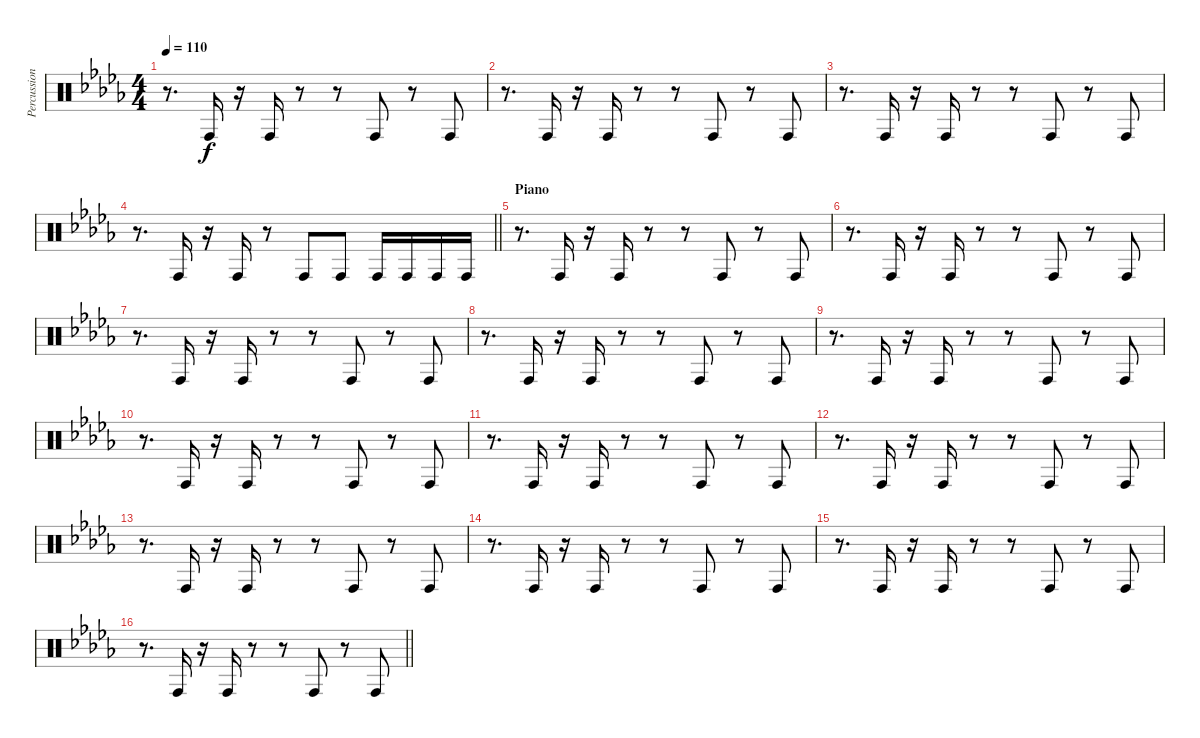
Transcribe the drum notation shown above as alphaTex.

\track ("Percussions" "Percussion") {instrument percussion}
\staff {score}
\articulation defaults
\ts (4 4)
\tempo 110
\clef neutral
\ks bbminor
r.8{d dy f} "Conga high (hit)".16 r.16 "Conga high (hit)".16 r.8 r.8 "Conga high (hit)".8 r.8 "Conga high (hit)".8 |
r.8{d} "Conga high (hit)".16 r.16 "Conga high (hit)".16 r.8 r.8 "Conga high (hit)".8 r.8 "Conga high (hit)".8 |
r.8{d} "Conga high (hit)".16 r.16 "Conga high (hit)".16 r.8 r.8 "Conga high (hit)".8 r.8 "Conga high (hit)".8 |
\barLineRight lightlight
r.8{d} "Conga high (hit)".16 r.16 "Conga high (hit)".16 r.8 "Conga high (hit)".8 "Conga high (hit)".8 "Conga high (hit)".16 "Conga high (hit)".16 "Conga high (hit)".16 "Conga high (hit)".16 |
\section ("" "Piano")
r.8{d} "Conga high (hit)".16 r.16 "Conga high (hit)".16 r.8 r.8 "Conga high (hit)".8 r.8 "Conga high (hit)".8 |
r.8{d} "Conga high (hit)".16 r.16 "Conga high (hit)".16 r.8 r.8 "Conga high (hit)".8 r.8 "Conga high (hit)".8 |
r.8{d} "Conga high (hit)".16 r.16 "Conga high (hit)".16 r.8 r.8 "Conga high (hit)".8 r.8 "Conga high (hit)".8 |
r.8{d} "Conga high (hit)".16 r.16 "Conga high (hit)".16 r.8 r.8 "Conga high (hit)".8 r.8 "Conga high (hit)".8 |
r.8{d} "Conga high (hit)".16 r.16 "Conga high (hit)".16 r.8 r.8 "Conga high (hit)".8 r.8 "Conga high (hit)".8 |
r.8{d} "Conga high (hit)".16 r.16 "Conga high (hit)".16 r.8 r.8 "Conga high (hit)".8 r.8 "Conga high (hit)".8 |
r.8{d} "Conga high (hit)".16 r.16 "Conga high (hit)".16 r.8 r.8 "Conga high (hit)".8 r.8 "Conga high (hit)".8 |
r.8{d} "Conga high (hit)".16 r.16 "Conga high (hit)".16 r.8 r.8 "Conga high (hit)".8 r.8 "Conga high (hit)".8 |
r.8{d} "Conga high (hit)".16 r.16 "Conga high (hit)".16 r.8 r.8 "Conga high (hit)".8 r.8 "Conga high (hit)".8 |
r.8{d} "Conga high (hit)".16 r.16 "Conga high (hit)".16 r.8 r.8 "Conga high (hit)".8 r.8 "Conga high (hit)".8 |
r.8{d} "Conga high (hit)".16 r.16 "Conga high (hit)".16 r.8 r.8 "Conga high (hit)".8 r.8 "Conga high (hit)".8 |
\barLineRight lightlight
r.8{d} "Conga high (hit)".16 r.16 "Conga high (hit)".16 r.8 r.8 "Conga high (hit)".8 r.8 "Conga high (hit)".8
